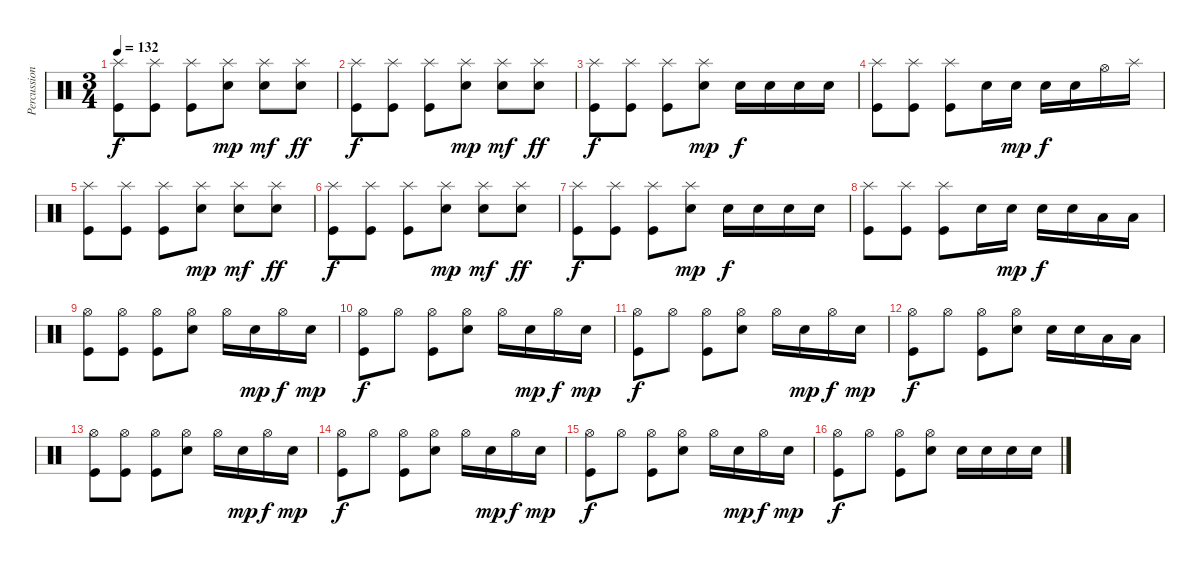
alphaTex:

\track ("Percussion" "Percussion") {instrument percussion}
\staff {score}
\articulation defaults
\ts (3 4)
\tempo 132
\clef neutral
\ks c
("Splash (hit)" "Kick (hit)").8{dy f} ("Splash (hit)" "Kick (hit)").8 ("Splash (hit)" "Kick (hit)").8 ("Splash (hit)" "Snare (hit) 2").8{dy mp} ("Splash (hit)" "Snare (hit) 2").8{dy mf} ("Splash (hit)" "Snare (hit) 2").8{dy ff} |
("Splash (hit)" "Kick (hit)").8{dy f} ("Splash (hit)" "Kick (hit)").8 ("Splash (hit)" "Kick (hit)").8 ("Splash (hit)" "Snare (hit) 2").8{dy mp} ("Splash (hit)" "Snare (hit) 2").8{dy mf} ("Splash (hit)" "Snare (hit) 2").8{dy ff} |
("Splash (hit)" "Kick (hit)").8{dy f} ("Splash (hit)" "Kick (hit)").8 ("Splash (hit)" "Kick (hit)").8 ("Splash (hit)" "Snare (hit) 2").8{dy mp} "Snare (hit) 2".16{dy f} "Snare (hit) 2".16 "Snare (hit) 2".16 "Snare (hit) 2".16 |
("Splash (hit)" "Kick (hit)").8 ("Splash (hit)" "Kick (hit)").8 ("Splash (hit)" "Kick (hit)").8 "Snare (hit) 2".16 "Snare (hit) 2".16{dy mp} "Snare (hit) 2".16{dy f} "Snare (hit) 2".16 "Hi-Hat (open)".16 "Splash (hit)".16 |
("Splash (hit)" "Kick (hit)").8 ("Splash (hit)" "Kick (hit)").8 ("Splash (hit)" "Kick (hit)").8 ("Splash (hit)" "Snare (hit) 2").8{dy mp} ("Splash (hit)" "Snare (hit) 2").8{dy mf} ("Splash (hit)" "Snare (hit) 2").8{dy ff} |
("Splash (hit)" "Kick (hit)").8{dy f} ("Splash (hit)" "Kick (hit)").8 ("Splash (hit)" "Kick (hit)").8 ("Splash (hit)" "Snare (hit) 2").8{dy mp} ("Splash (hit)" "Snare (hit) 2").8{dy mf} ("Splash (hit)" "Snare (hit) 2").8{dy ff} |
("Splash (hit)" "Kick (hit)").8{dy f} ("Splash (hit)" "Kick (hit)").8 ("Splash (hit)" "Kick (hit)").8 ("Splash (hit)" "Snare (hit) 2").8{dy mp} "Snare (hit) 2".16{dy f} "Snare (hit) 2".16 "Snare (hit) 2".16 "Snare (hit) 2".16 |
("Splash (hit)" "Kick (hit)").8 ("Splash (hit)" "Kick (hit)").8 ("Splash (hit)" "Kick (hit)").8 "Snare (hit) 2".16 "Snare (hit) 2".16{dy mp} "Snare (hit) 2".16{dy f} "Snare (hit) 2".16 "Low Tom (hit)".16 "Low Tom (hit)".16 |
("Hi-Hat (open)" "Kick (hit)").8 ("Hi-Hat (open)" "Kick (hit)").8 ("Hi-Hat (open)" "Kick (hit)").8 ("Hi-Hat (open)" "Snare (hit) 2").8 "Hi-Hat (open)".16 "Snare (hit) 2".16{dy mp} "Hi-Hat (open)".16{dy f} "Snare (hit) 2".16{dy mp} |
("Hi-Hat (open)" "Kick (hit)").8{dy f} "Hi-Hat (open)".8 ("Hi-Hat (open)" "Kick (hit)").8 ("Hi-Hat (open)" "Snare (hit) 2").8 "Hi-Hat (open)".16 "Snare (hit) 2".16{dy mp} "Hi-Hat (open)".16{dy f} "Snare (hit) 2".16{dy mp} |
("Hi-Hat (open)" "Kick (hit)").8{dy f} "Hi-Hat (open)".8 ("Hi-Hat (open)" "Kick (hit)").8 ("Hi-Hat (open)" "Snare (hit) 2").8 "Hi-Hat (open)".16 "Snare (hit) 2".16{dy mp} "Hi-Hat (open)".16{dy f} "Snare (hit) 2".16{dy mp} |
("Hi-Hat (open)" "Kick (hit)").8{dy f} "Hi-Hat (open)".8 ("Hi-Hat (open)" "Kick (hit)").8 ("Hi-Hat (open)" "Snare (hit) 2").8 "Snare (hit) 2".16 "Snare (hit) 2".16 "Low Tom (hit)".16 "Low Tom (hit)".16 |
("Hi-Hat (open)" "Kick (hit)").8 ("Hi-Hat (open)" "Kick (hit)").8 ("Hi-Hat (open)" "Kick (hit)").8 ("Hi-Hat (open)" "Snare (hit) 2").8 "Hi-Hat (open)".16 "Snare (hit) 2".16{dy mp} "Hi-Hat (open)".16{dy f} "Snare (hit) 2".16{dy mp} |
("Hi-Hat (open)" "Kick (hit)").8{dy f} "Hi-Hat (open)".8 ("Hi-Hat (open)" "Kick (hit)").8 ("Hi-Hat (open)" "Snare (hit) 2").8 "Hi-Hat (open)".16 "Snare (hit) 2".16{dy mp} "Hi-Hat (open)".16{dy f} "Snare (hit) 2".16{dy mp} |
("Hi-Hat (open)" "Kick (hit)").8{dy f} "Hi-Hat (open)".8 ("Hi-Hat (open)" "Kick (hit)").8 ("Hi-Hat (open)" "Snare (hit) 2").8 "Hi-Hat (open)".16 "Snare (hit) 2".16{dy mp} "Hi-Hat (open)".16{dy f} "Snare (hit) 2".16{dy mp} |
("Hi-Hat (open)" "Kick (hit)").8{dy f} "Hi-Hat (open)".8 ("Hi-Hat (open)" "Kick (hit)").8 ("Hi-Hat (open)" "Snare (hit) 2").8 "Snare (hit) 2".16 "Snare (hit) 2".16 "Snare (hit) 2".16 "Snare (hit) 2".16
